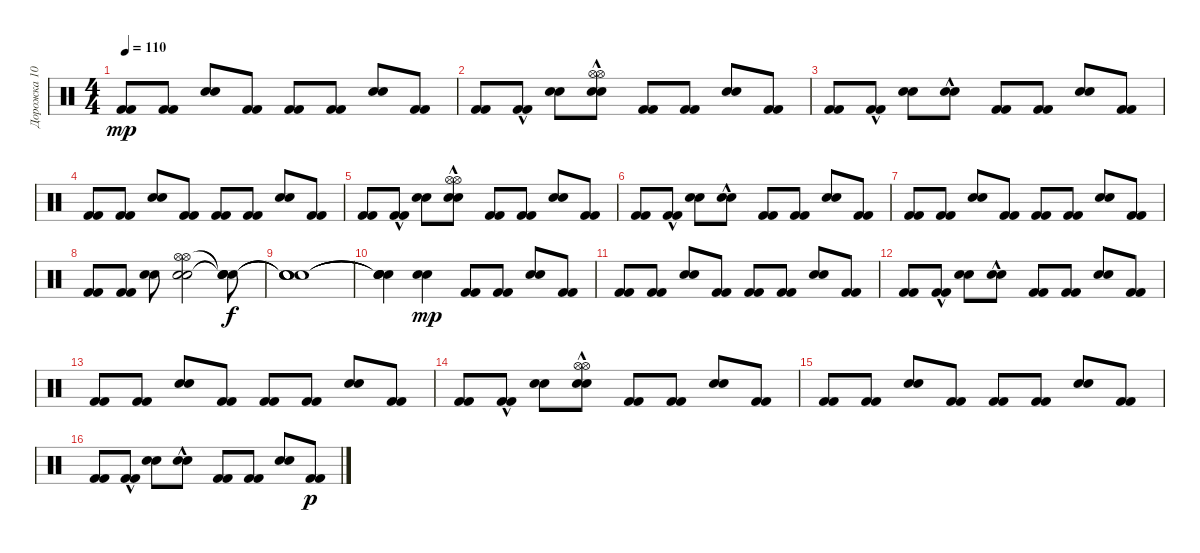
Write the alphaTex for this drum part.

\track ("Дорожка 10" "Дорожка 10") {instrument percussion}
\staff {score}
\articulation defaults
\ts (4 4)
\tempo 110
\clef neutral
\ks c
("Kick (hit) 2" "Kick (hit) 2").8{dy mp} ("Kick (hit) 2" "Kick (hit) 2").8 ("Snare (hit) 2" "Snare (hit) 2").8 ("Kick (hit) 2" "Kick (hit) 2").8 ("Kick (hit) 2" "Kick (hit) 2").8 ("Kick (hit) 2" "Kick (hit) 2").8 ("Snare (hit) 2" "Snare (hit) 2").8 ("Kick (hit) 2" "Kick (hit) 2").8 |
("Kick (hit) 2" "Kick (hit) 2").8 ("Kick (hit) 2"{hac} "Kick (hit) 2"{hac}).8 ("Snare (hit) 2" "Snare (hit) 2").8 ("Snare (hit) 2"{hac} "Hi-Hat (open)" "Snare (hit) 2"{hac} "Hi-Hat (open)").8 ("Kick (hit) 2" "Kick (hit) 2").8 ("Kick (hit) 2" "Kick (hit) 2").8 ("Snare (hit) 2" "Snare (hit) 2").8 ("Kick (hit) 2" "Kick (hit) 2").8 |
("Kick (hit) 2" "Kick (hit) 2").8 ("Kick (hit) 2"{hac} "Kick (hit) 2"{hac}).8 ("Snare (hit) 2" "Snare (hit) 2").8 ("Snare (hit) 2"{hac} "Snare (hit) 2"{hac}).8 ("Kick (hit) 2" "Kick (hit) 2").8 ("Kick (hit) 2" "Kick (hit) 2").8 ("Snare (hit) 2" "Snare (hit) 2").8 ("Kick (hit) 2" "Kick (hit) 2").8 |
("Kick (hit) 2" "Kick (hit) 2").8 ("Kick (hit) 2" "Kick (hit) 2").8 ("Snare (hit) 2" "Snare (hit) 2").8 ("Kick (hit) 2" "Kick (hit) 2").8 ("Kick (hit) 2" "Kick (hit) 2").8 ("Kick (hit) 2" "Kick (hit) 2").8 ("Snare (hit) 2" "Snare (hit) 2").8 ("Kick (hit) 2" "Kick (hit) 2").8 |
("Kick (hit) 2" "Kick (hit) 2").8 ("Kick (hit) 2"{hac} "Kick (hit) 2"{hac}).8 ("Snare (hit) 2" "Snare (hit) 2").8 ("Snare (hit) 2"{hac} "Hi-Hat (open)" "Snare (hit) 2"{hac} "Hi-Hat (open)").8 ("Kick (hit) 2" "Kick (hit) 2").8 ("Kick (hit) 2" "Kick (hit) 2").8 ("Snare (hit) 2" "Snare (hit) 2").8 ("Kick (hit) 2" "Kick (hit) 2").8 |
("Kick (hit) 2" "Kick (hit) 2").8 ("Kick (hit) 2"{hac} "Kick (hit) 2"{hac}).8 ("Snare (hit) 2" "Snare (hit) 2").8 ("Snare (hit) 2"{hac} "Snare (hit) 2"{hac}).8 ("Kick (hit) 2" "Kick (hit) 2").8 ("Kick (hit) 2" "Kick (hit) 2").8 ("Snare (hit) 2" "Snare (hit) 2").8 ("Kick (hit) 2" "Kick (hit) 2").8 |
("Kick (hit) 2" "Kick (hit) 2").8 ("Kick (hit) 2" "Kick (hit) 2").8 ("Snare (hit) 2" "Snare (hit) 2").8 ("Kick (hit) 2" "Kick (hit) 2").8 ("Kick (hit) 2" "Kick (hit) 2").8 ("Kick (hit) 2" "Kick (hit) 2").8 ("Snare (hit) 2" "Snare (hit) 2").8 ("Kick (hit) 2" "Kick (hit) 2").8 |
("Kick (hit) 2" "Kick (hit) 2").8 ("Kick (hit) 2" "Kick (hit) 2").8 ("Snare (hit) 2" "Snare (hit) 2").8 ("Snare (hit) 2" "Hi-Hat (open)" "Snare (hit) 2" "Hi-Hat (open)").2 ("Snare (hit)"{t} "Snare (hit)"{t} "Snare (hit)"{t} "Snare (hit)"{t}).8{dy f} |
("Snare (hit)"{t} "Snare (hit)"{t} "Snare (hit)"{t} "Snare (hit)"{t}).1 |
("Snare (hit)"{t} "Snare (hit)"{t} "Snare (hit)"{t} "Snare (hit)"{t}).4 ("Snare (hit) 2" "Snare (hit) 2").4{dy mp} ("Kick (hit) 2" "Kick (hit) 2").8 ("Kick (hit) 2" "Kick (hit) 2").8 ("Snare (hit) 2" "Snare (hit) 2").8 ("Kick (hit) 2" "Kick (hit) 2").8 |
("Kick (hit) 2" "Kick (hit) 2").8 ("Kick (hit) 2" "Kick (hit) 2").8 ("Snare (hit) 2" "Snare (hit) 2").8 ("Kick (hit) 2" "Kick (hit) 2").8 ("Kick (hit) 2" "Kick (hit) 2").8 ("Kick (hit) 2" "Kick (hit) 2").8 ("Snare (hit) 2" "Snare (hit) 2").8 ("Kick (hit) 2" "Kick (hit) 2").8 |
("Kick (hit) 2" "Kick (hit) 2").8 ("Kick (hit) 2"{hac} "Kick (hit) 2"{hac}).8 ("Snare (hit) 2" "Snare (hit) 2").8 ("Snare (hit) 2"{hac} "Snare (hit) 2"{hac}).8 ("Kick (hit) 2" "Kick (hit) 2").8 ("Kick (hit) 2" "Kick (hit) 2").8 ("Snare (hit) 2" "Snare (hit) 2").8 ("Kick (hit) 2" "Kick (hit) 2").8 |
("Kick (hit) 2" "Kick (hit) 2").8 ("Kick (hit) 2" "Kick (hit) 2").8 ("Snare (hit) 2" "Snare (hit) 2").8 ("Kick (hit) 2" "Kick (hit) 2").8 ("Kick (hit) 2" "Kick (hit) 2").8 ("Kick (hit) 2" "Kick (hit) 2").8 ("Snare (hit) 2" "Snare (hit) 2").8 ("Kick (hit) 2" "Kick (hit) 2").8 |
("Kick (hit) 2" "Kick (hit) 2").8 ("Kick (hit) 2"{hac} "Kick (hit) 2"{hac}).8 ("Snare (hit) 2" "Snare (hit) 2").8 ("Snare (hit) 2"{hac} "Hi-Hat (open)" "Snare (hit) 2"{hac} "Hi-Hat (open)").8 ("Kick (hit) 2" "Kick (hit) 2").8 ("Kick (hit) 2" "Kick (hit) 2").8 ("Snare (hit) 2" "Snare (hit) 2").8 ("Kick (hit) 2" "Kick (hit) 2").8 |
("Kick (hit) 2" "Kick (hit) 2").8 ("Kick (hit) 2" "Kick (hit) 2").8 ("Snare (hit) 2" "Snare (hit) 2").8 ("Kick (hit) 2" "Kick (hit) 2").8 ("Kick (hit) 2" "Kick (hit) 2").8 ("Kick (hit) 2" "Kick (hit) 2").8 ("Snare (hit) 2" "Snare (hit) 2").8 ("Kick (hit) 2" "Kick (hit) 2").8 |
("Kick (hit) 2" "Kick (hit) 2").8 ("Kick (hit) 2"{hac} "Kick (hit) 2"{hac}).8 ("Snare (hit) 2" "Snare (hit) 2").8 ("Snare (hit) 2"{hac} "Snare (hit) 2"{hac}).8 ("Kick (hit) 2" "Kick (hit) 2").8 ("Kick (hit) 2" "Kick (hit) 2").8 ("Snare (hit) 2" "Snare (hit) 2").8 ("Kick (hit) 2" "Kick (hit) 2").8{dy p}
